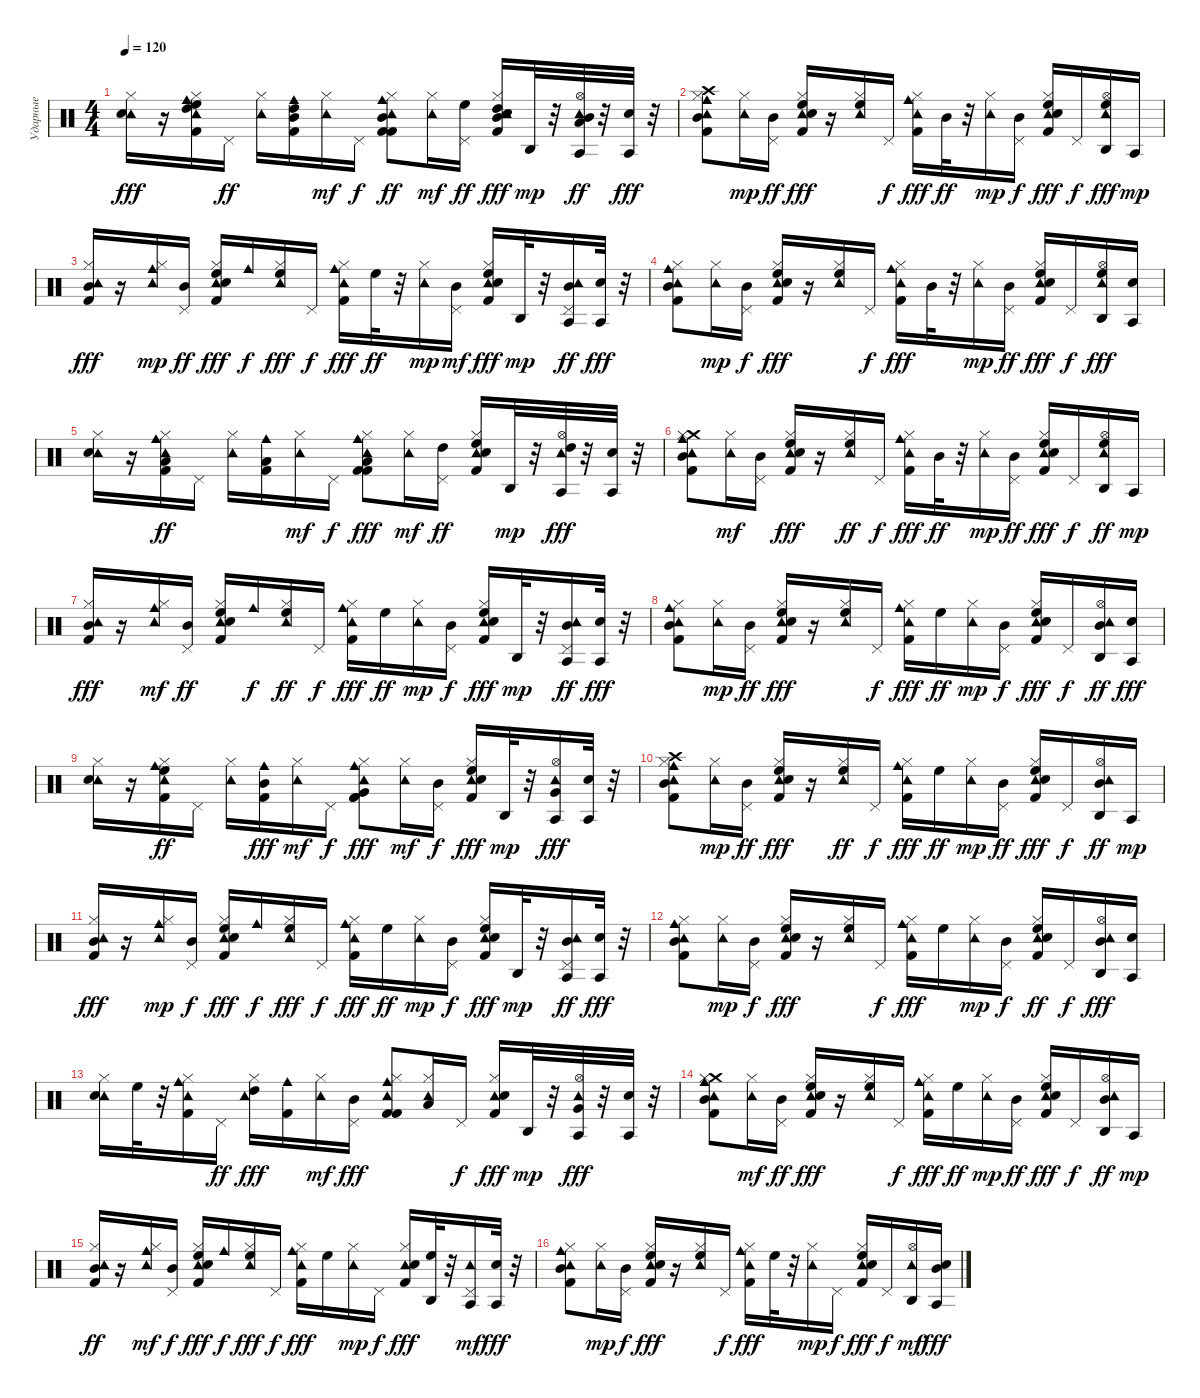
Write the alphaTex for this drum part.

\track ("Ударные" "Ударные") {instrument percussion}
\staff {score}
\articulation defaults
\ts (4 4)
\tempo 120
\clef neutral
\ks c
("Tambourine (hit)" "Electric Snare (hit)" "Hi-Hat (closed)").16{dy fff} r.16 ("Tambourine (hit)" "Cowbell medium (hit)" "Hi-Hat (closed)" "Kick (hit) 2" "High Floor Tom (hit)" "High Tom (hit)").16 "Pedal Hi-Hat (hit)".16{dy ff} ("Tambourine (hit)" "Hi-Hat (closed)").16 ("Cowbell medium (hit)" "Kick (hit) 2" "High Tom (hit)" "Mid Tom (hit)").16 ("Tambourine (hit)" "Hi-Hat (closed)").16{dy mf} "Pedal Hi-Hat (hit)".16{dy f} ("Tambourine (hit)" "Cowbell medium (hit)" "Kick (hit) 2" "Hi-Hat (closed)" "Kick (hit) 2" "Mid Tom (hit)").8{dy ff} ("Tambourine (hit)" "Hi-Hat (closed)").16{dy mf} ("Pedal Hi-Hat (hit)" "High Floor Tom (hit)").16{dy ff} ("Tambourine (hit)" "High Tom (hit)" "Hi-Hat (closed)" "Kick (hit) 2" "Electric Snare (hit)" "Mid Tom (hit)").16{dy fff} "Agogo high (hit)".32{dy mp} r.32 ("Agogo tow (hit)" "Tambourine (hit)" "Hi-Hat (open)" "Mid Tom (hit)" "Low Tom (hit)").32{dy ff} r.32 ("Agogo tow (hit)" "Electric Snare (hit)").32{dy fff} r.32 |
("Tambourine (hit)" "Cowbell medium (hit)" "Mid Tom (hit)" "Crash high (hit)" "Hi-Hat (closed)" "Kick (hit) 2").8 ("Tambourine (hit)" "Hi-Hat (closed)").16{dy mp} ("Pedal Hi-Hat (hit)" "Mid Tom (hit)").16{dy ff} ("Tambourine (hit)" "High Floor Tom (hit)" "Electric Snare (hit)" "Kick (hit) 2" "Hi-Hat (closed)").16{dy fff} r.16 ("Tambourine (hit)" "High Floor Tom (hit)" "Hi-Hat (closed)").16 "Pedal Hi-Hat (hit)".16{dy f} ("Tambourine (hit)" "Cowbell medium (hit)" "Kick (hit) 2" "Hi-Hat (closed)").16{dy fff} "Mid Tom (hit)".32{dy ff} r.32 ("Tambourine (hit)" "Hi-Hat (closed)").16{dy mp} ("Pedal Hi-Hat (hit)" "Mid Tom (hit)").16{dy f} ("Tambourine (hit)" "High Floor Tom (hit)" "Kick (hit) 2" "Electric Snare (hit)" "Hi-Hat (closed)").16{dy fff} "Pedal Hi-Hat (hit)".16{dy f} ("Agogo high (hit)" "Tambourine (hit)" "High Floor Tom (hit)" "Hi-Hat (open)").16{dy fff} "Agogo tow (hit)".16{dy mp} |
("Tambourine (hit)" "Mid Tom (hit)" "Kick (hit) 2" "Hi-Hat (closed)").16{dy fff} r.16 ("Cowbell medium (hit)" "Tambourine (hit)" "Hi-Hat (closed)").16{dy mp} ("Pedal Hi-Hat (hit)" "Mid Tom (hit)").16{dy ff} ("Tambourine (hit)" "Hi-Hat (closed)" "Kick (hit) 2" "Electric Snare (hit)" "High Floor Tom (hit)").16{dy fff} "Cowbell medium (hit)".16{dy f} ("Tambourine (hit)" "Hi-Hat (closed)" "High Floor Tom (hit)").16{dy fff} "Pedal Hi-Hat (hit)".16{dy f} ("Cowbell medium (hit)" "Tambourine (hit)" "Kick (hit) 2" "Hi-Hat (closed)").16{dy fff} "High Floor Tom (hit)".32{dy ff} r.32 ("Tambourine (hit)" "Hi-Hat (closed)").16{dy mp} ("Pedal Hi-Hat (hit)" "Mid Tom (hit)").16{dy mf} ("Tambourine (hit)" "Electric Snare (hit)" "Kick (hit) 2" "Hi-Hat (closed)" "High Floor Tom (hit)").16{dy fff} "Agogo high (hit)".32{dy mp} r.32 ("Agogo tow (hit)" "Tambourine (hit)" "Pedal Hi-Hat (hit)" "Mid Tom (hit)").16{dy ff} ("Agogo tow (hit)" "Electric Snare (hit)").32{dy fff} r.32 |
("Cowbell medium (hit)" "Tambourine (hit)" "Kick (hit) 2" "Hi-Hat (closed)" "Mid Tom (hit)").8 ("Tambourine (hit)" "Hi-Hat (closed)").16{dy mp} ("Mid Tom (hit)" "Pedal Hi-Hat (hit)").16{dy f} ("Tambourine (hit)" "High Floor Tom (hit)" "Electric Snare (hit)" "Kick (hit) 2" "Hi-Hat (closed)").16{dy fff} r.16 ("Tambourine (hit)" "Hi-Hat (closed)" "High Floor Tom (hit)").16 "Pedal Hi-Hat (hit)".16{dy f} ("Cowbell medium (hit)" "Tambourine (hit)" "Hi-Hat (closed)" "Kick (hit) 2").16{dy fff} "Mid Tom (hit)".32 r.32 ("Tambourine (hit)" "Hi-Hat (closed)").16{dy mp} ("Pedal Hi-Hat (hit)" "Mid Tom (hit)").16{dy ff} ("Tambourine (hit)" "Kick (hit) 2" "Electric Snare (hit)" "Hi-Hat (closed)" "High Floor Tom (hit)").16{dy fff} "Pedal Hi-Hat (hit)".16{dy f} ("Agogo high (hit)" "Tambourine (hit)" "Hi-Hat (open)" "High Floor Tom (hit)").16{dy fff} ("Agogo tow (hit)" "Electric Snare (hit)").16 |
("Tambourine (hit)" "Electric Snare (hit)" "Hi-Hat (closed)").16 r.16 ("Tambourine (hit)" "Cowbell medium (hit)" "Hi-Hat (closed)" "Kick (hit) 2" "Low Tom (hit)").16{dy ff} "Pedal Hi-Hat (hit)".16 ("Tambourine (hit)" "Hi-Hat (closed)").16 ("Cowbell medium (hit)" "Kick (hit) 2" "Low Tom (hit)").16 ("Tambourine (hit)" "Hi-Hat (closed)").16{dy mf} "Pedal Hi-Hat (hit)".16{dy f} ("Tambourine (hit)" "Cowbell medium (hit)" "Kick (hit) 2" "Hi-Hat (closed)" "Kick (hit) 2" "Low Tom (hit)").8{dy fff} ("Tambourine (hit)" "Hi-Hat (closed)").16{dy mf} ("Pedal Hi-Hat (hit)" "High Tom (hit)").16{dy ff} ("Tambourine (hit)" "Hi-Hat (closed)" "Kick (hit) 2" "Electric Snare (hit)" "High Floor Tom (hit)").16 "Agogo high (hit)".32{dy mp} r.32 ("Agogo tow (hit)" "Tambourine (hit)" "Hi-Hat (open)" "High Tom (hit)").32{dy fff} r.32 ("Agogo tow (hit)" "Electric Snare (hit)").32 r.32 |
("Tambourine (hit)" "Cowbell medium (hit)" "Mid Tom (hit)" "Crash medium (hit)" "Hi-Hat (closed)" "Kick (hit) 2").8 ("Tambourine (hit)" "Hi-Hat (closed)").16{dy mf} ("Mid Tom (hit)" "Pedal Hi-Hat (hit)").16 ("Tambourine (hit)" "High Floor Tom (hit)" "Electric Snare (hit)" "Kick (hit) 2" "Hi-Hat (closed)").16{dy fff} r.16 ("Tambourine (hit)" "High Floor Tom (hit)" "Hi-Hat (closed)").16{dy ff} "Pedal Hi-Hat (hit)".16{dy f} ("Tambourine (hit)" "Cowbell medium (hit)" "Kick (hit) 2" "Hi-Hat (closed)").16{dy fff} "Mid Tom (hit)".32{dy ff} r.32 ("Tambourine (hit)" "Hi-Hat (closed)").16{dy mp} ("Mid Tom (hit)" "Pedal Hi-Hat (hit)").16{dy ff} ("Tambourine (hit)" "High Floor Tom (hit)" "Kick (hit) 2" "Electric Snare (hit)" "Hi-Hat (closed)").16{dy fff} "Pedal Hi-Hat (hit)".16{dy f} ("Agogo high (hit)" "Tambourine (hit)" "Hi-Hat (open)" "High Floor Tom (hit)").16{dy ff} "Agogo tow (hit)".16{dy mp} |
("Tambourine (hit)" "Mid Tom (hit)" "Kick (hit) 2" "Hi-Hat (closed)").16{dy fff} r.16 ("Cowbell medium (hit)" "Tambourine (hit)" "Hi-Hat (closed)").16{dy mf} ("Pedal Hi-Hat (hit)" "Mid Tom (hit)").16{dy ff} ("Tambourine (hit)" "Hi-Hat (closed)" "Kick (hit) 2" "Electric Snare (hit)" "High Floor Tom (hit)").16 "Cowbell medium (hit)".16{dy f} ("Tambourine (hit)" "Hi-Hat (closed)" "High Floor Tom (hit)").16{dy ff} "Pedal Hi-Hat (hit)".16{dy f} ("Cowbell medium (hit)" "Tambourine (hit)" "Kick (hit) 2" "Hi-Hat (closed)").16{dy fff} "High Floor Tom (hit)".16{dy ff} ("Tambourine (hit)" "Hi-Hat (closed)").16{dy mp} ("Pedal Hi-Hat (hit)" "Mid Tom (hit)").16{dy f} ("Tambourine (hit)" "High Floor Tom (hit)" "Electric Snare (hit)" "Kick (hit) 2" "Hi-Hat (closed)").16{dy fff} "Agogo high (hit)".32{dy mp} r.32 ("Agogo tow (hit)" "Tambourine (hit)" "Mid Tom (hit)" "Pedal Hi-Hat (hit)").16{dy ff} ("Agogo tow (hit)" "Electric Snare (hit)").32{dy fff} r.32 |
("Tambourine (hit)" "Cowbell medium (hit)" "Mid Tom (hit)" "Kick (hit) 2" "Hi-Hat (closed)").8 ("Tambourine (hit)" "Hi-Hat (closed)").16{dy mp} ("Mid Tom (hit)" "Pedal Hi-Hat (hit)").16{dy ff} ("Tambourine (hit)" "High Floor Tom (hit)" "Electric Snare (hit)" "Kick (hit) 2" "Hi-Hat (closed)").16{dy fff} r.16 ("Tambourine (hit)" "High Floor Tom (hit)" "Hi-Hat (closed)").16 "Pedal Hi-Hat (hit)".16{dy f} ("Tambourine (hit)" "Cowbell medium (hit)" "Hi-Hat (closed)" "Kick (hit) 2").16{dy fff} "High Floor Tom (hit)".16{dy ff} ("Tambourine (hit)" "Hi-Hat (closed)").16{dy mp} ("Pedal Hi-Hat (hit)" "Mid Tom (hit)").16{dy f} ("Tambourine (hit)" "Kick (hit) 2" "Electric Snare (hit)" "Hi-Hat (closed)" "High Floor Tom (hit)").16{dy fff} "Pedal Hi-Hat (hit)".16{dy f} ("Agogo high (hit)" "Tambourine (hit)" "Hi-Hat (open)" "Mid Tom (hit)").16{dy ff} ("Agogo tow (hit)" "Electric Snare (hit)").16{dy fff} |
("Tambourine (hit)" "Electric Snare (hit)" "Hi-Hat (closed)").16 r.16 ("Tambourine (hit)" "Cowbell medium (hit)" "Hi-Hat (closed)" "Kick (hit) 2" "High Floor Tom (hit)").16{dy ff} "Pedal Hi-Hat (hit)".16 ("Tambourine (hit)" "Hi-Hat (closed)").16 ("Cowbell medium (hit)" "Kick (hit) 2" "Mid Tom (hit)").16{dy fff} ("Tambourine (hit)" "Hi-Hat (closed)").16{dy mf} "Pedal Hi-Hat (hit)".16{dy f} ("Tambourine (hit)" "Cowbell medium (hit)" "Kick (hit) 2" "Hi-Hat (closed)" "Kick (hit) 2" "Very Low Tom (hit)").8{dy fff} ("Tambourine (hit)" "Hi-Hat (closed)").16{dy mf} ("Mid Tom (hit)" "Pedal Hi-Hat (hit)").16{dy f} ("Tambourine (hit)" "High Floor Tom (hit)" "Hi-Hat (closed)" "Kick (hit) 2" "Electric Snare (hit)").16{dy fff} "Agogo high (hit)".32{dy mp} r.32 ("Agogo tow (hit)" "Tambourine (hit)" "Very Low Tom (hit)" "Hi-Hat (open)").16{dy fff} ("Agogo tow (hit)" "Electric Snare (hit)").32 r.32 |
("Tambourine (hit)" "Cowbell medium (hit)" "Mid Tom (hit)" "Crash high (hit)" "Hi-Hat (closed)" "Kick (hit) 2").8 ("Tambourine (hit)" "Hi-Hat (closed)").16{dy mp} ("Pedal Hi-Hat (hit)" "Mid Tom (hit)").16{dy ff} ("Tambourine (hit)" "High Floor Tom (hit)" "Electric Snare (hit)" "Kick (hit) 2" "Hi-Hat (closed)").16{dy fff} r.16 ("Tambourine (hit)" "High Floor Tom (hit)" "Hi-Hat (closed)").16{dy ff} "Pedal Hi-Hat (hit)".16{dy f} ("Tambourine (hit)" "Cowbell medium (hit)" "Kick (hit) 2" "Hi-Hat (closed)").16{dy fff} "High Floor Tom (hit)".16{dy ff} ("Tambourine (hit)" "Hi-Hat (closed)").16{dy mp} ("Pedal Hi-Hat (hit)" "Mid Tom (hit)").16{dy ff} ("Tambourine (hit)" "Kick (hit) 2" "Electric Snare (hit)" "Hi-Hat (closed)" "High Floor Tom (hit)").16{dy fff} "Pedal Hi-Hat (hit)".16{dy f} ("Agogo high (hit)" "Tambourine (hit)" "Hi-Hat (open)" "Mid Tom (hit)").16{dy ff} "Agogo tow (hit)".16{dy mp} |
("Tambourine (hit)" "Mid Tom (hit)" "Kick (hit) 2" "Hi-Hat (closed)").16{dy fff} r.16 ("Cowbell medium (hit)" "Tambourine (hit)" "Hi-Hat (closed)").16{dy mp} ("Mid Tom (hit)" "Pedal Hi-Hat (hit)").16{dy f} ("Tambourine (hit)" "High Floor Tom (hit)" "Hi-Hat (closed)" "Kick (hit) 2" "Electric Snare (hit)").16{dy fff} "Cowbell medium (hit)".16{dy f} ("Tambourine (hit)" "Hi-Hat (closed)" "High Floor Tom (hit)").16{dy fff} "Pedal Hi-Hat (hit)".16{dy f} ("Cowbell medium (hit)" "Tambourine (hit)" "Kick (hit) 2" "Hi-Hat (closed)").16{dy fff} "High Floor Tom (hit)".16{dy ff} ("Tambourine (hit)" "Hi-Hat (closed)").16{dy mp} ("Pedal Hi-Hat (hit)" "Mid Tom (hit)").16{dy f} ("Tambourine (hit)" "Electric Snare (hit)" "Kick (hit) 2" "Hi-Hat (closed)" "High Floor Tom (hit)").16{dy fff} "Agogo high (hit)".32{dy mp} r.32 ("Agogo tow (hit)" "Tambourine (hit)" "Pedal Hi-Hat (hit)" "Mid Tom (hit)").16{dy ff} ("Agogo tow (hit)" "Electric Snare (hit)").32{dy fff} r.32 |
("Cowbell medium (hit)" "Tambourine (hit)" "Kick (hit) 2" "Hi-Hat (closed)" "Mid Tom (hit)").8 ("Tambourine (hit)" "Hi-Hat (closed)").16{dy mp} ("Mid Tom (hit)" "Pedal Hi-Hat (hit)").16{dy f} ("Tambourine (hit)" "High Floor Tom (hit)" "Electric Snare (hit)" "Kick (hit) 2" "Hi-Hat (closed)").16{dy fff} r.16 ("Tambourine (hit)" "Hi-Hat (closed)" "High Floor Tom (hit)").16 "Pedal Hi-Hat (hit)".16{dy f} ("Cowbell medium (hit)" "Tambourine (hit)" "Hi-Hat (closed)" "Kick (hit) 2").16{dy fff} "High Floor Tom (hit)".16 ("Tambourine (hit)" "Hi-Hat (closed)").16{dy mp} ("Pedal Hi-Hat (hit)" "Mid Tom (hit)").16{dy f} ("Tambourine (hit)" "Kick (hit) 2" "Electric Snare (hit)" "Hi-Hat (closed)" "High Floor Tom (hit)").16{dy ff} "Pedal Hi-Hat (hit)".16{dy f} ("Agogo high (hit)" "Tambourine (hit)" "Hi-Hat (open)" "Mid Tom (hit)").16{dy fff} ("Agogo tow (hit)" "Electric Snare (hit)").16 |
("Tambourine (hit)" "Electric Snare (hit)" "Hi-Hat (closed)").16 "High Floor Tom (hit)".32 r.32 ("Tambourine (hit)" "Cowbell medium (hit)" "Hi-Hat (closed)" "Kick (hit) 2").16 "Pedal Hi-Hat (hit)".16{dy ff} ("Tambourine (hit)" "High Tom (hit)" "Hi-Hat (closed)").16{dy fff} ("Cowbell medium (hit)" "Kick (hit) 2").16 ("Tambourine (hit)" "Hi-Hat (closed)").16{dy mf} ("Mid Tom (hit)" "Pedal Hi-Hat (hit)").16{dy fff} ("Tambourine (hit)" "Cowbell medium (hit)" "Kick (hit) 2" "Hi-Hat (closed)" "Kick (hit) 2").8 ("Tambourine (hit)" "Hi-Hat (closed)" "Low Tom (hit)").16 "Pedal Hi-Hat (hit)".16{dy f} ("Tambourine (hit)" "Hi-Hat (closed)" "Kick (hit) 2" "Electric Snare (hit)").16{dy fff} "Agogo high (hit)".32{dy mp} r.32 ("Agogo tow (hit)" "Tambourine (hit)" "Very Low Tom (hit)" "Hi-Hat (open)").32{dy fff} r.32 ("Agogo tow (hit)" "Electric Snare (hit)").32 r.32 |
("Tambourine (hit)" "Cowbell medium (hit)" "Mid Tom (hit)" "Crash medium (hit)" "Hi-Hat (closed)" "Kick (hit) 2").8 ("Tambourine (hit)" "Hi-Hat (closed)").16{dy mf} ("Pedal Hi-Hat (hit)" "Mid Tom (hit)").16{dy ff} ("Tambourine (hit)" "High Floor Tom (hit)" "Electric Snare (hit)" "Kick (hit) 2" "Hi-Hat (closed)").16{dy fff} r.16 ("Tambourine (hit)" "High Floor Tom (hit)" "Hi-Hat (closed)").16 "Pedal Hi-Hat (hit)".16{dy f} ("Tambourine (hit)" "Cowbell medium (hit)" "Kick (hit) 2" "Hi-Hat (closed)").16{dy fff} "High Floor Tom (hit)".16{dy ff} ("Tambourine (hit)" "Hi-Hat (closed)").16{dy mp} ("Pedal Hi-Hat (hit)" "Mid Tom (hit)").16{dy ff} ("Tambourine (hit)" "Kick (hit) 2" "Electric Snare (hit)" "Hi-Hat (closed)" "High Floor Tom (hit)").16{dy fff} "Pedal Hi-Hat (hit)".16{dy f} ("Agogo high (hit)" "Tambourine (hit)" "Hi-Hat (open)" "Mid Tom (hit)").16{dy ff} "Agogo tow (hit)".16{dy mp} |
("Tambourine (hit)" "Kick (hit) 2" "Hi-Hat (closed)" "Mid Tom (hit)").16{dy ff} r.16 ("Cowbell medium (hit)" "Tambourine (hit)" "Hi-Hat (closed)").16{dy mf} ("Pedal Hi-Hat (hit)" "Mid Tom (hit)").16{dy f} ("Tambourine (hit)" "Hi-Hat (closed)" "Kick (hit) 2" "Electric Snare (hit)" "High Floor Tom (hit)").16{dy fff} "Cowbell medium (hit)".16{dy f} ("Tambourine (hit)" "Hi-Hat (closed)" "High Floor Tom (hit)").16{dy fff} "Pedal Hi-Hat (hit)".16{dy f} ("Cowbell medium (hit)" "Tambourine (hit)" "Kick (hit) 2" "Hi-Hat (closed)").16{dy fff} "High Floor Tom (hit)".16 ("Tambourine (hit)" "Hi-Hat (closed)").16{dy mp} "Pedal Hi-Hat (hit)".16{dy f} ("Tambourine (hit)" "Electric Snare (hit)" "Kick (hit) 2" "Hi-Hat (closed)").16{dy fff} ("Agogo high (hit)" "High Floor Tom (hit)").32 r.32 ("Agogo tow (hit)" "Tambourine (hit)" "Pedal Hi-Hat (hit)").16{dy mf} ("Agogo tow (hit)" "Electric Snare (hit)").32{dy fff} r.32 |
("Tambourine (hit)" "Cowbell medium (hit)" "Kick (hit) 2" "Hi-Hat (closed)" "Mid Tom (hit)").8 ("Tambourine (hit)" "Hi-Hat (closed)").16{dy mp} ("Mid Tom (hit)" "Pedal Hi-Hat (hit)").16{dy f} ("Tambourine (hit)" "High Floor Tom (hit)" "Electric Snare (hit)" "Kick (hit) 2" "Hi-Hat (closed)").16{dy fff} r.16 ("Tambourine (hit)" "High Floor Tom (hit)" "Hi-Hat (closed)").16 "Pedal Hi-Hat (hit)".16{dy f} ("Tambourine (hit)" "Cowbell medium (hit)" "Hi-Hat (closed)" "Kick (hit) 2").16{dy fff} "High Floor Tom (hit)".32 r.32 ("Tambourine (hit)" "Hi-Hat (closed)").16{dy mp} "Pedal Hi-Hat (hit)".16{dy f} ("Tambourine (hit)" "High Floor Tom (hit)" "Kick (hit) 2" "Electric Snare (hit)" "Hi-Hat (closed)").16{dy fff} "Pedal Hi-Hat (hit)".16{dy f} ("Agogo high (hit)" "Tambourine (hit)" "Hi-Hat (open)").16{dy mf} ("Agogo tow (hit)" "Electric Snare (hit)" "Mid Tom (hit)").16{dy fff}
